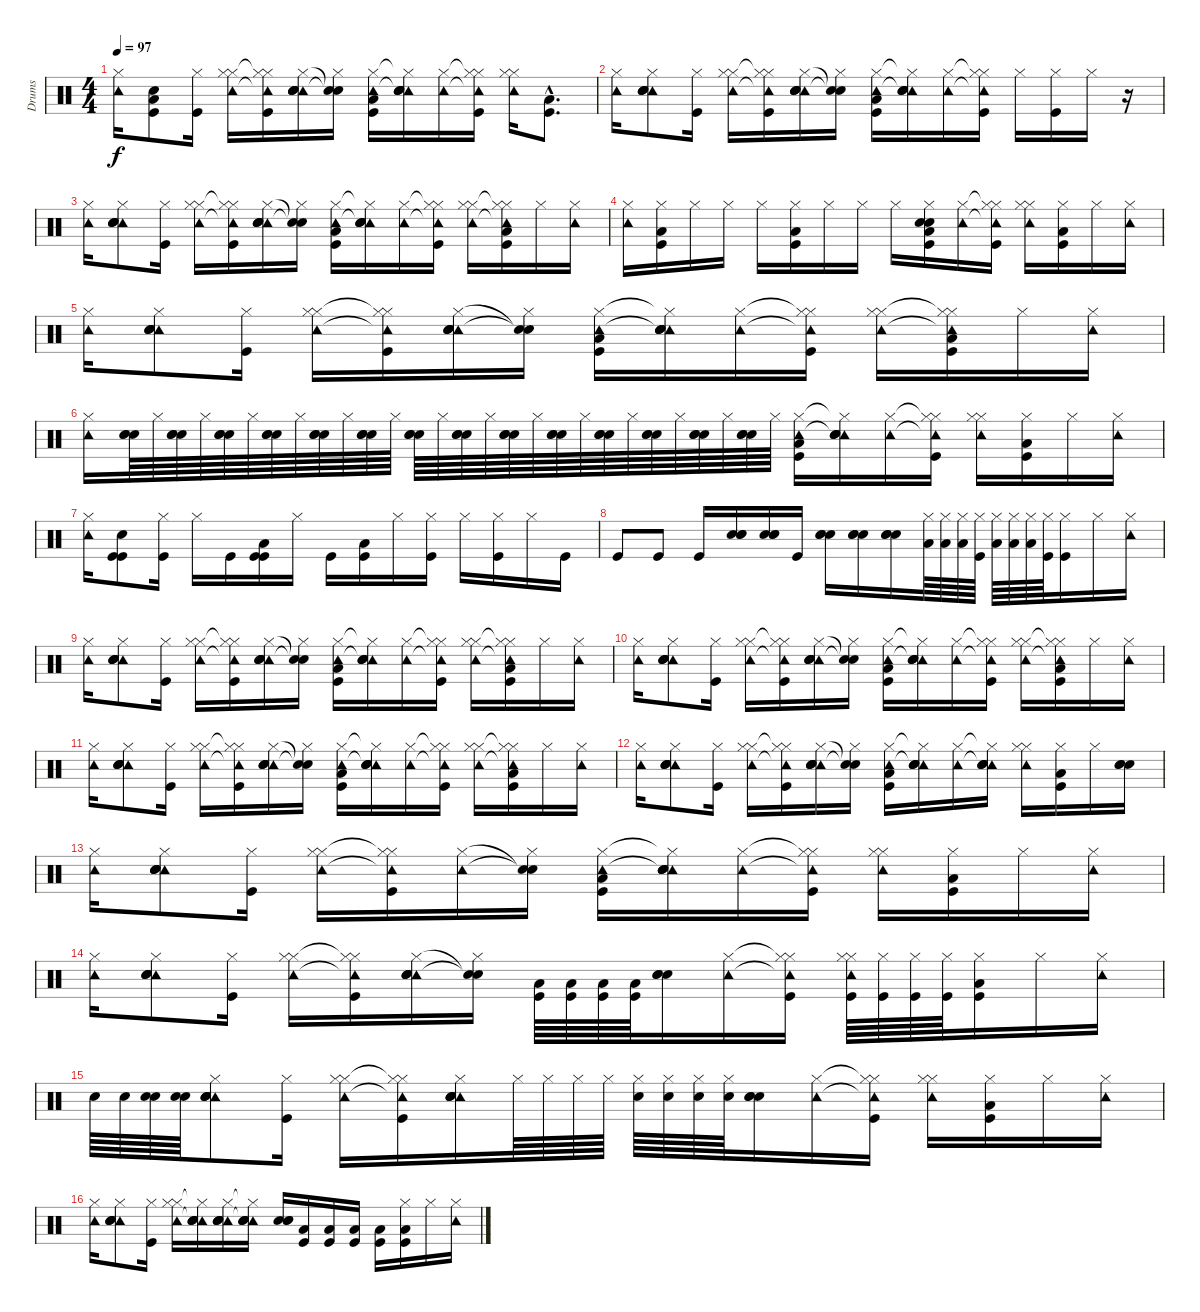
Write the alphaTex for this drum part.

\track ("Drums" "Drums") {instrument percussion}
\staff {score}
\articulation defaults
\ts (4 4)
\tempo 97
\clef neutral
\ks c
("Hi-Hat (closed)" "Tambourine (hit)").16{dy f} ("Electric Snare (hit)" "Low Tom (hit)" "Kick (hit)").8 ("Kick (hit)" "Hi-Hat (closed)").16 ("Hi-Hat (closed)" "Tambourine (hit)" "Hi-Hat (closed)").16 ("Hi-Hat (closed)"{t} "Tambourine (hit)"{t} "Kick (hit)" "Hi-Hat (closed)").16 ("Hi-Hat (closed)" "Tambourine (hit)" "Electric Snare (hit)" "Snare (hit) 2" "Snare (hit) 2").16 ("Snare (hit)"{t} "Snare (hit)"{t} "Hi-Hat (closed)").16 ("Hi-Hat (closed)" "Tambourine (hit)" "Kick (hit)" "Low Tom (hit)").16 ("Hi-Hat (closed)"{t} "Tambourine (hit)"{t} "Electric Snare (hit)" "Snare (hit) 2" "Snare (hit) 2").16 ("Hi-Hat (closed)" "Tambourine (hit)").16 ("Hi-Hat (closed)"{t} "Tambourine (hit)"{t} "Kick (hit)" "Hi-Hat (closed)").16 ("Hi-Hat (closed)" "Tambourine (hit)" "Hi-Hat (closed)").16 ("Kick (hit)"{hac} "Low Tom (hit)"{hac}).8{d} |
("Hi-Hat (closed)" "Tambourine (hit)").16 ("Hi-Hat (closed)" "Tambourine (hit)" "Electric Snare (hit)" "Snare (hit) 2" "Snare (hit) 2").8 ("Kick (hit)" "Hi-Hat (closed)").16 ("Hi-Hat (closed)" "Tambourine (hit)" "Hi-Hat (closed)").16 ("Hi-Hat (closed)"{t} "Tambourine (hit)"{t} "Kick (hit)" "Hi-Hat (closed)").16 ("Hi-Hat (closed)" "Tambourine (hit)" "Electric Snare (hit)" "Snare (hit) 2" "Snare (hit) 2").16 ("Snare (hit)"{t} "Snare (hit)"{t} "Hi-Hat (closed)").16 ("Hi-Hat (closed)" "Tambourine (hit)" "Kick (hit)" "Low Tom (hit)").16 ("Hi-Hat (closed)"{t} "Tambourine (hit)"{t} "Electric Snare (hit)" "Snare (hit) 2" "Snare (hit) 2").16 ("Hi-Hat (closed)" "Tambourine (hit)").16 ("Hi-Hat (closed)"{t} "Tambourine (hit)"{t} "Kick (hit)" "Hi-Hat (closed)").16 "Hi-Hat (closed)".16 ("Kick (hit)" "Hi-Hat (closed)").16 "Hi-Hat (closed)".16 r.16 |
("Hi-Hat (closed)" "Tambourine (hit)").16 ("Hi-Hat (closed)" "Tambourine (hit)" "Electric Snare (hit)" "Snare (hit) 2" "Snare (hit) 2").8 ("Kick (hit)" "Hi-Hat (closed)").16 ("Hi-Hat (closed)" "Tambourine (hit)" "Hi-Hat (closed)").16 ("Hi-Hat (closed)"{t} "Tambourine (hit)"{t} "Kick (hit)" "Hi-Hat (closed)").16 ("Hi-Hat (closed)" "Tambourine (hit)" "Electric Snare (hit)" "Snare (hit) 2" "Snare (hit) 2").16 ("Snare (hit)"{t} "Snare (hit)"{t} "Hi-Hat (closed)").16 ("Hi-Hat (closed)" "Tambourine (hit)" "Kick (hit)" "Low Tom (hit)").16 ("Hi-Hat (closed)"{t} "Tambourine (hit)"{t} "Electric Snare (hit)" "Snare (hit) 2" "Snare (hit) 2").16 ("Hi-Hat (closed)" "Tambourine (hit)").16 ("Hi-Hat (closed)"{t} "Tambourine (hit)"{t} "Kick (hit)" "Hi-Hat (closed)").16 ("Hi-Hat (closed)" "Tambourine (hit)" "Hi-Hat (closed)").16 ("Hi-Hat (closed)"{t} "Tambourine (hit)"{t} "Kick (hit)" "Hi-Hat (closed)" "Low Tom (hit)").16 "Hi-Hat (closed)".16 ("Hi-Hat (closed)" "Tambourine (hit)").16 |
("Hi-Hat (closed)" "Tambourine (hit)").16 ("Kick (hit)" "Hi-Hat (closed)" "Low Tom (hit)").16 "Hi-Hat (closed)".16 "Hi-Hat (closed)".16 "Hi-Hat (closed)".16 ("Kick (hit)" "Hi-Hat (closed)" "Low Tom (hit)").16 "Hi-Hat (closed)".16 "Hi-Hat (closed)".16 "Hi-Hat (closed)".16 ("Snare (hit) 2" "Kick (hit)" "Hi-Hat (closed)" "Electric Snare (hit)" "Low Tom (hit)").16 ("Hi-Hat (closed)" "Tambourine (hit)").16 ("Hi-Hat (closed)"{t} "Tambourine (hit)"{t} "Kick (hit)" "Hi-Hat (closed)").16 ("Hi-Hat (closed)" "Tambourine (hit)" "Hi-Hat (closed)").16 ("Kick (hit)" "Hi-Hat (closed)" "Low Tom (hit)").16 "Hi-Hat (closed)".16 ("Hi-Hat (closed)" "Tambourine (hit)").16 |
("Hi-Hat (closed)" "Tambourine (hit)").16 ("Hi-Hat (closed)" "Tambourine (hit)" "Electric Snare (hit)" "Snare (hit) 2" "Snare (hit) 2").8 ("Kick (hit)" "Hi-Hat (closed)").16 ("Hi-Hat (closed)" "Tambourine (hit)" "Hi-Hat (closed)").16 ("Hi-Hat (closed)"{t} "Tambourine (hit)"{t} "Kick (hit)" "Hi-Hat (closed)").16 ("Hi-Hat (closed)" "Tambourine (hit)" "Electric Snare (hit)" "Snare (hit) 2" "Snare (hit) 2").16 ("Snare (hit)"{t} "Snare (hit)"{t} "Hi-Hat (closed)").16 ("Hi-Hat (closed)" "Tambourine (hit)" "Kick (hit)" "Low Tom (hit)").16 ("Hi-Hat (closed)"{t} "Tambourine (hit)"{t} "Electric Snare (hit)" "Snare (hit) 2" "Snare (hit) 2").16 ("Hi-Hat (closed)" "Tambourine (hit)").16 ("Hi-Hat (closed)"{t} "Tambourine (hit)"{t} "Kick (hit)" "Hi-Hat (closed)").16 ("Hi-Hat (closed)" "Tambourine (hit)" "Hi-Hat (closed)").16 ("Hi-Hat (closed)"{t} "Tambourine (hit)"{t} "Kick (hit)" "Hi-Hat (closed)" "Low Tom (hit)").16 "Hi-Hat (closed)".16 ("Hi-Hat (closed)" "Tambourine (hit)").16 |
("Hi-Hat (closed)" "Tambourine (hit)").16 ("Electric Snare (hit)" "Snare (hit) 2" "Snare (hit) 2").64 "Hi-Hat (closed)".64 ("Electric Snare (hit)" "Snare (hit) 2" "Snare (hit) 2").64 "Hi-Hat (closed)".64 ("Electric Snare (hit)" "Snare (hit) 2" "Snare (hit) 2").64 "Hi-Hat (closed)".64 ("Electric Snare (hit)" "Snare (hit) 2" "Snare (hit) 2").64 "Hi-Hat (closed)".64 ("Electric Snare (hit)" "Snare (hit) 2" "Snare (hit) 2").64 "Hi-Hat (closed)".64 ("Electric Snare (hit)" "Snare (hit) 2" "Snare (hit) 2").64 "Hi-Hat (closed)".64 ("Electric Snare (hit)" "Snare (hit) 2" "Snare (hit) 2").64 "Hi-Hat (closed)".64 ("Electric Snare (hit)" "Snare (hit) 2" "Snare (hit) 2").64 "Hi-Hat (closed)".64 ("Electric Snare (hit)" "Snare (hit) 2" "Snare (hit) 2").64 "Hi-Hat (closed)".64 ("Electric Snare (hit)" "Snare (hit) 2" "Snare (hit) 2").64 "Hi-Hat (closed)".64 ("Electric Snare (hit)" "Snare (hit) 2" "Snare (hit) 2").64 "Hi-Hat (closed)".64 ("Electric Snare (hit)" "Snare (hit) 2" "Snare (hit) 2").64 "Hi-Hat (closed)".64 ("Electric Snare (hit)" "Snare (hit) 2" "Snare (hit) 2").64 "Hi-Hat (closed)".64 ("Electric Snare (hit)" "Snare (hit) 2" "Snare (hit) 2").64 "Hi-Hat (closed)".64 ("Hi-Hat (closed)" "Tambourine (hit)" "Kick (hit)" "Low Tom (hit)").16 ("Hi-Hat (closed)"{t} "Tambourine (hit)"{t} "Electric Snare (hit)" "Snare (hit) 2" "Snare (hit) 2").16 ("Hi-Hat (closed)" "Tambourine (hit)").16 ("Hi-Hat (closed)"{t} "Tambourine (hit)"{t} "Kick (hit)" "Hi-Hat (closed)").16 ("Hi-Hat (closed)" "Tambourine (hit)" "Hi-Hat (closed)").16 ("Kick (hit)" "Hi-Hat (closed)" "Low Tom (hit)").16 "Hi-Hat (closed)".16 ("Hi-Hat (closed)" "Tambourine (hit)").16 |
("Hi-Hat (closed)" "Tambourine (hit)").16 ("Electric Snare (hit)" "Kick (hit)" "Kick (hit)").8 ("Kick (hit)" "Hi-Hat (closed)").16 "Hi-Hat (closed)".16 "Kick (hit)".16 ("Kick (hit)" "Kick (hit)" "Low Tom (hit)").16 "Hi-Hat (closed)".16 "Kick (hit)".16 ("Kick (hit)" "Low Tom (hit)").16 "Hi-Hat (closed)".16 ("Kick (hit)" "Hi-Hat (closed)").16 "Hi-Hat (closed)".16 ("Kick (hit)" "Hi-Hat (closed)").16 "Hi-Hat (closed)".16 "Kick (hit)".16 |
"Kick (hit)".8 "Kick (hit)".8 "Kick (hit)".16 ("Electric Snare (hit)" "Snare (hit) 2" "Snare (hit) 2").16 ("Electric Snare (hit)" "Snare (hit) 2" "Snare (hit) 2").16 "Kick (hit)".16 ("Electric Snare (hit)" "Snare (hit) 2" "Snare (hit) 2").16 ("Electric Snare (hit)" "Snare (hit) 2" "Snare (hit) 2").16 ("Electric Snare (hit)" "Snare (hit) 2" "Snare (hit) 2").16 ("Low Tom (hit)" "Hi-Hat (closed)").64{volume 2} ("Low Tom (hit)" "Hi-Hat (closed)").64{volume 4} ("Low Tom (hit)" "Hi-Hat (closed)").64{volume 6} ("Kick (hit)" "Hi-Hat (closed)").64{volume 7} ("Low Tom (hit)" "Hi-Hat (closed)").64{volume 9} ("Low Tom (hit)" "Hi-Hat (closed)").64{volume 10} ("Low Tom (hit)" "Hi-Hat (closed)").64{volume 11} ("Kick (hit)" "Hi-Hat (closed)").64{volume 12} ("Kick (hit)" "Hi-Hat (closed)").16 "Hi-Hat (closed)".16 ("Hi-Hat (closed)" "Tambourine (hit)").16 |
("Hi-Hat (closed)" "Tambourine (hit)").16 ("Hi-Hat (closed)" "Tambourine (hit)" "Electric Snare (hit)" "Snare (hit) 2" "Snare (hit) 2").8 ("Kick (hit)" "Hi-Hat (closed)").16 ("Hi-Hat (closed)" "Tambourine (hit)" "Hi-Hat (closed)").16 ("Hi-Hat (closed)"{t} "Tambourine (hit)"{t} "Kick (hit)" "Hi-Hat (closed)").16 ("Hi-Hat (closed)" "Tambourine (hit)" "Electric Snare (hit)" "Snare (hit) 2" "Snare (hit) 2").16 ("Snare (hit)"{t} "Snare (hit)"{t} "Hi-Hat (closed)").16 ("Hi-Hat (closed)" "Tambourine (hit)" "Kick (hit)" "Low Tom (hit)").16 ("Hi-Hat (closed)"{t} "Tambourine (hit)"{t} "Electric Snare (hit)" "Snare (hit) 2" "Snare (hit) 2").16 ("Hi-Hat (closed)" "Tambourine (hit)").16 ("Hi-Hat (closed)"{t} "Tambourine (hit)"{t} "Kick (hit)" "Hi-Hat (closed)").16 ("Hi-Hat (closed)" "Tambourine (hit)" "Hi-Hat (closed)").16 ("Hi-Hat (closed)"{t} "Tambourine (hit)"{t} "Kick (hit)" "Hi-Hat (closed)" "Low Tom (hit)").16 "Hi-Hat (closed)".16 ("Hi-Hat (closed)" "Tambourine (hit)").16 |
("Hi-Hat (closed)" "Tambourine (hit)").16 ("Hi-Hat (closed)" "Tambourine (hit)" "Electric Snare (hit)" "Snare (hit) 2" "Snare (hit) 2").8 ("Kick (hit)" "Hi-Hat (closed)").16 ("Hi-Hat (closed)" "Tambourine (hit)" "Hi-Hat (closed)").16 ("Hi-Hat (closed)"{t} "Tambourine (hit)"{t} "Kick (hit)" "Hi-Hat (closed)").16 ("Hi-Hat (closed)" "Tambourine (hit)" "Electric Snare (hit)" "Snare (hit) 2" "Snare (hit) 2").16 ("Snare (hit)"{t} "Snare (hit)"{t} "Hi-Hat (closed)").16 ("Hi-Hat (closed)" "Tambourine (hit)" "Kick (hit)" "Low Tom (hit)").16 ("Hi-Hat (closed)"{t} "Tambourine (hit)"{t} "Electric Snare (hit)" "Snare (hit) 2" "Snare (hit) 2").16 ("Hi-Hat (closed)" "Tambourine (hit)").16 ("Hi-Hat (closed)"{t} "Tambourine (hit)"{t} "Kick (hit)" "Hi-Hat (closed)").16 ("Hi-Hat (closed)" "Tambourine (hit)" "Hi-Hat (closed)").16 ("Hi-Hat (closed)"{t} "Tambourine (hit)"{t} "Kick (hit)" "Hi-Hat (closed)" "Low Tom (hit)").16 "Hi-Hat (closed)".16 ("Hi-Hat (closed)" "Tambourine (hit)").16 |
("Hi-Hat (closed)" "Tambourine (hit)").16 ("Hi-Hat (closed)" "Tambourine (hit)" "Electric Snare (hit)" "Snare (hit) 2" "Snare (hit) 2").8 ("Kick (hit)" "Hi-Hat (closed)").16 ("Hi-Hat (closed)" "Tambourine (hit)" "Hi-Hat (closed)").16 ("Hi-Hat (closed)"{t} "Tambourine (hit)"{t} "Kick (hit)" "Hi-Hat (closed)").16 ("Hi-Hat (closed)" "Tambourine (hit)" "Electric Snare (hit)" "Snare (hit) 2" "Snare (hit) 2").16 ("Snare (hit)"{t} "Snare (hit)"{t} "Hi-Hat (closed)").16 ("Hi-Hat (closed)" "Tambourine (hit)" "Kick (hit)" "Low Tom (hit)").16 ("Hi-Hat (closed)"{t} "Tambourine (hit)"{t} "Electric Snare (hit)" "Snare (hit) 2" "Snare (hit) 2").16 ("Hi-Hat (closed)" "Tambourine (hit)").16 ("Hi-Hat (closed)"{t} "Tambourine (hit)"{t} "Kick (hit)" "Hi-Hat (closed)").16 ("Hi-Hat (closed)" "Tambourine (hit)" "Hi-Hat (closed)").16 ("Hi-Hat (closed)"{t} "Tambourine (hit)"{t} "Kick (hit)" "Hi-Hat (closed)" "Low Tom (hit)").16 "Hi-Hat (closed)".16 ("Hi-Hat (closed)" "Tambourine (hit)").16 |
("Hi-Hat (closed)" "Tambourine (hit)").16 ("Hi-Hat (closed)" "Tambourine (hit)" "Electric Snare (hit)" "Snare (hit) 2" "Snare (hit) 2").8 ("Kick (hit)" "Hi-Hat (closed)").16 ("Hi-Hat (closed)" "Tambourine (hit)" "Hi-Hat (closed)").16 ("Hi-Hat (closed)"{t} "Tambourine (hit)"{t} "Kick (hit)" "Hi-Hat (closed)").16 ("Hi-Hat (closed)" "Tambourine (hit)" "Electric Snare (hit)" "Snare (hit) 2" "Snare (hit) 2").16 ("Snare (hit)"{t} "Snare (hit)"{t} "Hi-Hat (closed)").16 ("Hi-Hat (closed)" "Tambourine (hit)" "Kick (hit)" "Low Tom (hit)").16 ("Hi-Hat (closed)"{t} "Tambourine (hit)"{t} "Electric Snare (hit)" "Snare (hit) 2" "Snare (hit) 2").16 ("Hi-Hat (closed)" "Tambourine (hit)").16 ("Hi-Hat (closed)"{t} "Tambourine (hit)"{t} "Electric Snare (hit)" "Snare (hit) 2" "Snare (hit) 2").16 ("Hi-Hat (closed)" "Tambourine (hit)" "Hi-Hat (closed)").16 ("Kick (hit)" "Hi-Hat (closed)" "Low Tom (hit)").16 "Hi-Hat (closed)".16 ("Electric Snare (hit)" "Snare (hit) 2" "Snare (hit) 2").16 |
("Hi-Hat (closed)" "Tambourine (hit)").16 ("Hi-Hat (closed)" "Tambourine (hit)" "Electric Snare (hit)" "Snare (hit) 2" "Snare (hit) 2").8 ("Kick (hit)" "Hi-Hat (closed)").16 ("Hi-Hat (closed)" "Tambourine (hit)" "Hi-Hat (closed)").16 ("Hi-Hat (closed)"{t} "Tambourine (hit)"{t} "Kick (hit)" "Hi-Hat (closed)").16 ("Hi-Hat (closed)" "Tambourine (hit)").16 ("Snare (hit)"{t} "Snare (hit)"{t} "Hi-Hat (closed)").16 ("Hi-Hat (closed)" "Tambourine (hit)" "Kick (hit)" "Low Tom (hit)").16 ("Hi-Hat (closed)"{t} "Tambourine (hit)"{t} "Electric Snare (hit)" "Snare (hit) 2" "Snare (hit) 2").16 ("Hi-Hat (closed)" "Tambourine (hit)").16 ("Hi-Hat (closed)"{t} "Tambourine (hit)"{t} "Kick (hit)" "Hi-Hat (closed)").16 ("Hi-Hat (closed)" "Tambourine (hit)" "Hi-Hat (closed)").16 ("Kick (hit)" "Hi-Hat (closed)" "Low Tom (hit)").16 "Hi-Hat (closed)".16 ("Hi-Hat (closed)" "Tambourine (hit)").16 |
("Hi-Hat (closed)" "Tambourine (hit)").16 ("Hi-Hat (closed)" "Tambourine (hit)" "Electric Snare (hit)" "Snare (hit) 2" "Snare (hit) 2").8 ("Kick (hit)" "Hi-Hat (closed)").16 ("Hi-Hat (closed)" "Tambourine (hit)" "Hi-Hat (closed)").16 ("Hi-Hat (closed)"{t} "Tambourine (hit)"{t} "Kick (hit)" "Hi-Hat (closed)").16 ("Hi-Hat (closed)" "Tambourine (hit)" "Electric Snare (hit)" "Snare (hit) 2" "Snare (hit) 2").16 ("Snare (hit)"{t} "Snare (hit)"{t} "Hi-Hat (closed)").16 ("Kick (hit)" "Low Tom (hit)").64 ("Kick (hit)" "Low Tom (hit)").64 ("Kick (hit)" "Low Tom (hit)").64 ("Kick (hit)" "Low Tom (hit)").64 ("Electric Snare (hit)" "Snare (hit) 2" "Snare (hit) 2").16 ("Hi-Hat (closed)" "Tambourine (hit)").16 ("Hi-Hat (closed)"{t} "Tambourine (hit)"{t} "Kick (hit)" "Hi-Hat (closed)").16 ("Hi-Hat (closed)" "Tambourine (hit)" "Kick (hit)" "Hi-Hat (closed)").64 ("Kick (hit)" "Hi-Hat (closed)").64 ("Kick (hit)" "Hi-Hat (closed)").64 ("Kick (hit)" "Hi-Hat (closed)").64 ("Kick (hit)" "Hi-Hat (closed)" "Low Tom (hit)").16 "Hi-Hat (closed)".16 ("Hi-Hat (closed)" "Tambourine (hit)").16 |
"Electric Snare (hit)".64 "Electric Snare (hit)".64 ("Electric Snare (hit)" "Snare (hit) 2").64 ("Electric Snare (hit)" "Snare (hit) 2").64 ("Hi-Hat (closed)" "Tambourine (hit)" "Electric Snare (hit)" "Snare (hit) 2" "Snare (hit) 2").8 ("Kick (hit)" "Hi-Hat (closed)").16 ("Hi-Hat (closed)" "Tambourine (hit)" "Hi-Hat (closed)").16 ("Hi-Hat (closed)"{t} "Tambourine (hit)"{t} "Kick (hit)" "Hi-Hat (closed)").16 ("Hi-Hat (closed)" "Tambourine (hit)" "Electric Snare (hit)" "Snare (hit) 2" "Snare (hit) 2").16 "Hi-Hat (closed)".64 "Hi-Hat (closed)".64 "Hi-Hat (closed)".64 "Hi-Hat (closed)".64 ("Electric Snare (hit)" "Hi-Hat (closed)").64 ("Electric Snare (hit)" "Hi-Hat (closed)").64 ("Electric Snare (hit)" "Hi-Hat (closed)").64 ("Electric Snare (hit)" "Hi-Hat (closed)").64 ("Electric Snare (hit)" "Snare (hit) 2" "Snare (hit) 2").16 ("Hi-Hat (closed)" "Tambourine (hit)").16 ("Hi-Hat (closed)"{t} "Tambourine (hit)"{t} "Kick (hit)" "Hi-Hat (closed)").16 ("Hi-Hat (closed)" "Tambourine (hit)" "Hi-Hat (closed)").16 ("Kick (hit)" "Hi-Hat (closed)" "Low Tom (hit)").16 "Hi-Hat (closed)".16 ("Hi-Hat (closed)" "Tambourine (hit)").16 |
("Hi-Hat (closed)" "Tambourine (hit)").16 ("Hi-Hat (closed)" "Tambourine (hit)" "Electric Snare (hit)" "Snare (hit) 2" "Snare (hit) 2").8 ("Kick (hit)" "Hi-Hat (closed)").16 ("Hi-Hat (closed)" "Tambourine (hit)" "Hi-Hat (closed)").16 ("Hi-Hat (closed)"{t} "Tambourine (hit)"{t} "Electric Snare (hit)" "Snare (hit) 2" "Snare (hit) 2").16 ("Hi-Hat (closed)" "Tambourine (hit)" "Electric Snare (hit)" "Snare (hit) 2" "Snare (hit) 2").16 ("Hi-Hat (closed)"{t} "Tambourine (hit)"{t} "Electric Snare (hit)" "Snare (hit) 2" "Snare (hit) 2").16 ("Electric Snare (hit)" "Snare (hit) 2" "Snare (hit) 2").16 ("Kick (hit)" "Low Tom (hit)").16 ("Kick (hit)" "Low Tom (hit)").16 ("Kick (hit)" "Low Tom (hit)").16 ("Kick (hit)" "Low Tom (hit)").16 ("Kick (hit)" "Hi-Hat (closed)" "Low Tom (hit)").16 "Hi-Hat (closed)".16 ("Hi-Hat (closed)" "Tambourine (hit)").16
